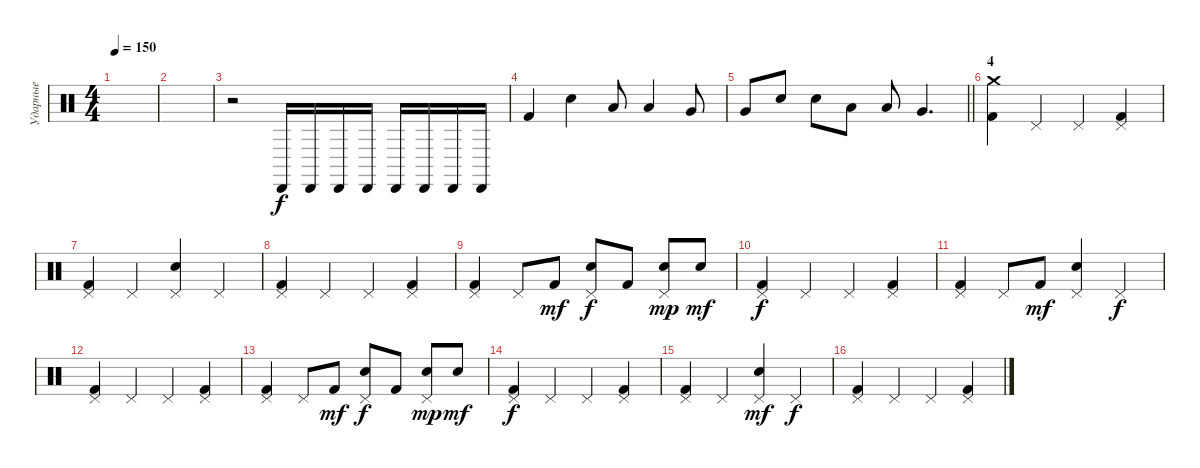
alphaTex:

\track ("Ударные" "Ударные") {mute instrument percussion}
\staff {score}
\articulation defaults
\ts (4 4)
\tempo 150
\clef neutral
\ks c
|
|
r.2 "Cabasa (hit)".16 "Cabasa (hit)".16 "Cabasa (hit)".16 "Cabasa (hit)".16 "Cabasa (hit)".16 "Cabasa (hit)".16 "Cabasa (hit)".16 "Cabasa (hit)".16 |
"Kick (hit) 2".4{dy f} "Snare (hit) 2".4 "Low Tom (hit)".8 "Low Tom (hit)".4 "Very Low Tom (hit)".8 |
\barLineRight lightlight "Very Low Tom (hit)".8 "Snare (hit) 2".8 "Snare (hit) 2".8 "Low Tom (hit)".8 "Low Tom (hit)".8 "Very Low Tom (hit)".4{d}
|
\section ("" "4")
("Crash medium (hit)" "Kick (hit) 2").4 "Pedal Hi-Hat (hit)".4 "Pedal Hi-Hat (hit)".4 ("Pedal Hi-Hat (hit)" "Kick (hit) 2").4 |
("Pedal Hi-Hat (hit)" "Kick (hit) 2").4 "Pedal Hi-Hat (hit)".4 ("Pedal Hi-Hat (hit)" "Snare (hit) 2").4 "Pedal Hi-Hat (hit)".4 |
("Pedal Hi-Hat (hit)" "Kick (hit) 2").4 "Pedal Hi-Hat (hit)".4 "Pedal Hi-Hat (hit)".4 ("Pedal Hi-Hat (hit)" "Kick (hit) 2").4 |
("Pedal Hi-Hat (hit)" "Kick (hit) 2").4 "Pedal Hi-Hat (hit)".8 "Kick (hit) 2".8{dy mf} ("Pedal Hi-Hat (hit)" "Snare (hit) 2").8{dy f} "Kick (hit) 2".8 ("Pedal Hi-Hat (hit)" "Snare (hit) 2").8{dy mp} "Snare (hit) 2".8{dy mf} |
("Pedal Hi-Hat (hit)" "Kick (hit) 2").4{dy f} "Pedal Hi-Hat (hit)".4 "Pedal Hi-Hat (hit)".4 ("Pedal Hi-Hat (hit)" "Kick (hit) 2").4 |
("Pedal Hi-Hat (hit)" "Kick (hit) 2").4 "Pedal Hi-Hat (hit)".8 "Kick (hit) 2".8{dy mf} ("Pedal Hi-Hat (hit)" "Snare (hit) 2").4 "Pedal Hi-Hat (hit)".4{dy f} |
("Pedal Hi-Hat (hit)" "Kick (hit) 2").4 "Pedal Hi-Hat (hit)".4 "Pedal Hi-Hat (hit)".4 ("Pedal Hi-Hat (hit)" "Kick (hit) 2").4 |
("Pedal Hi-Hat (hit)" "Kick (hit) 2").4 "Pedal Hi-Hat (hit)".8 "Kick (hit) 2".8{dy mf} ("Pedal Hi-Hat (hit)" "Snare (hit) 2").8{dy f} "Kick (hit) 2".8 ("Pedal Hi-Hat (hit)" "Snare (hit) 2").8{dy mp} "Snare (hit) 2".8{dy mf} |
("Pedal Hi-Hat (hit)" "Kick (hit) 2").4{dy f} "Pedal Hi-Hat (hit)".4 "Pedal Hi-Hat (hit)".4 ("Pedal Hi-Hat (hit)" "Kick (hit) 2").4 |
("Pedal Hi-Hat (hit)" "Kick (hit) 2").4 "Pedal Hi-Hat (hit)".4 ("Pedal Hi-Hat (hit)" "Snare (hit) 2").4{dy mf} "Pedal Hi-Hat (hit)".4{dy f} |
("Pedal Hi-Hat (hit)" "Kick (hit) 2").4 "Pedal Hi-Hat (hit)".4 "Pedal Hi-Hat (hit)".4 ("Pedal Hi-Hat (hit)" "Kick (hit) 2").4
